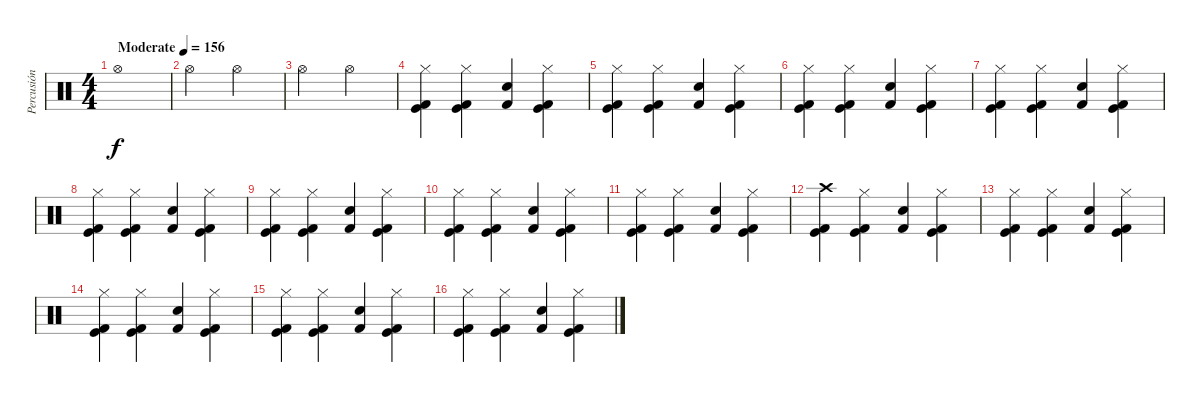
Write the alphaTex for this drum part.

\track ("Percusión" "Percusión") {instrument percussion}
\staff {score}
\articulation defaults
\ts (4 4)
\tempo (156 "Moderate")
\clef neutral
\ks c "Hi-Hat (open)".1{dy f}
|
"Hi-Hat (open)".2 "Hi-Hat (open)".2 |
"Hi-Hat (open)".2 "Hi-Hat (open)".2 |
("Kick (hit) 2" "Kick (hit)" "Hi-Hat (closed)").4 ("Kick (hit) 2" "Kick (hit)" "Hi-Hat (closed)").4 ("Kick (hit) 2" "Snare (hit) 2").4 ("Kick (hit) 2" "Kick (hit)" "Hi-Hat (closed)").4 |
("Kick (hit) 2" "Kick (hit)" "Hi-Hat (closed)").4 ("Kick (hit) 2" "Kick (hit)" "Hi-Hat (closed)").4 ("Kick (hit) 2" "Snare (hit) 2").4 ("Kick (hit) 2" "Kick (hit)" "Hi-Hat (closed)").4 |
("Kick (hit) 2" "Kick (hit)" "Hi-Hat (closed)").4 ("Kick (hit) 2" "Kick (hit)" "Hi-Hat (closed)").4 ("Kick (hit) 2" "Snare (hit) 2").4 ("Kick (hit) 2" "Kick (hit)" "Hi-Hat (closed)").4 |
("Kick (hit) 2" "Kick (hit)" "Hi-Hat (closed)").4 ("Kick (hit) 2" "Kick (hit)" "Hi-Hat (closed)").4 ("Kick (hit) 2" "Snare (hit) 2").4 ("Kick (hit) 2" "Kick (hit)" "Hi-Hat (closed)").4 |
("Kick (hit) 2" "Kick (hit)" "Hi-Hat (closed)").4 ("Kick (hit) 2" "Kick (hit)" "Hi-Hat (closed)").4 ("Kick (hit) 2" "Snare (hit) 2").4 ("Kick (hit) 2" "Kick (hit)" "Hi-Hat (closed)").4 |
("Kick (hit) 2" "Kick (hit)" "Hi-Hat (closed)").4 ("Kick (hit) 2" "Kick (hit)" "Hi-Hat (closed)").4 ("Kick (hit) 2" "Snare (hit) 2").4 ("Kick (hit) 2" "Kick (hit)" "Hi-Hat (closed)").4 |
("Kick (hit) 2" "Kick (hit)" "Hi-Hat (closed)").4 ("Kick (hit) 2" "Kick (hit)" "Hi-Hat (closed)").4 ("Kick (hit) 2" "Snare (hit) 2").4 ("Kick (hit) 2" "Kick (hit)" "Hi-Hat (closed)").4 |
("Kick (hit) 2" "Kick (hit)" "Hi-Hat (closed)").4 ("Kick (hit) 2" "Kick (hit)" "Hi-Hat (closed)").4 ("Kick (hit) 2" "Snare (hit) 2").4 ("Kick (hit) 2" "Kick (hit)" "Hi-Hat (closed)").4 |
("Kick (hit) 2" "Kick (hit)" "Crash high (hit)").4 ("Kick (hit) 2" "Kick (hit)" "Hi-Hat (closed)").4 ("Kick (hit) 2" "Snare (hit) 2").4 ("Kick (hit) 2" "Kick (hit)" "Hi-Hat (closed)").4 |
("Kick (hit) 2" "Kick (hit)" "Hi-Hat (closed)").4 ("Kick (hit) 2" "Kick (hit)" "Hi-Hat (closed)").4 ("Kick (hit) 2" "Snare (hit) 2").4 ("Kick (hit) 2" "Kick (hit)" "Hi-Hat (closed)").4 |
("Kick (hit) 2" "Kick (hit)" "Hi-Hat (closed)").4 ("Kick (hit) 2" "Kick (hit)" "Hi-Hat (closed)").4 ("Kick (hit) 2" "Snare (hit) 2").4 ("Kick (hit) 2" "Kick (hit)" "Hi-Hat (closed)").4 |
("Kick (hit) 2" "Kick (hit)" "Hi-Hat (closed)").4 ("Kick (hit) 2" "Kick (hit)" "Hi-Hat (closed)").4 ("Kick (hit) 2" "Snare (hit) 2").4 ("Kick (hit) 2" "Kick (hit)" "Hi-Hat (closed)").4 |
("Kick (hit) 2" "Kick (hit)" "Hi-Hat (closed)").4 ("Kick (hit) 2" "Kick (hit)" "Hi-Hat (closed)").4 ("Kick (hit) 2" "Snare (hit) 2").4 ("Kick (hit) 2" "Kick (hit)" "Hi-Hat (closed)").4
